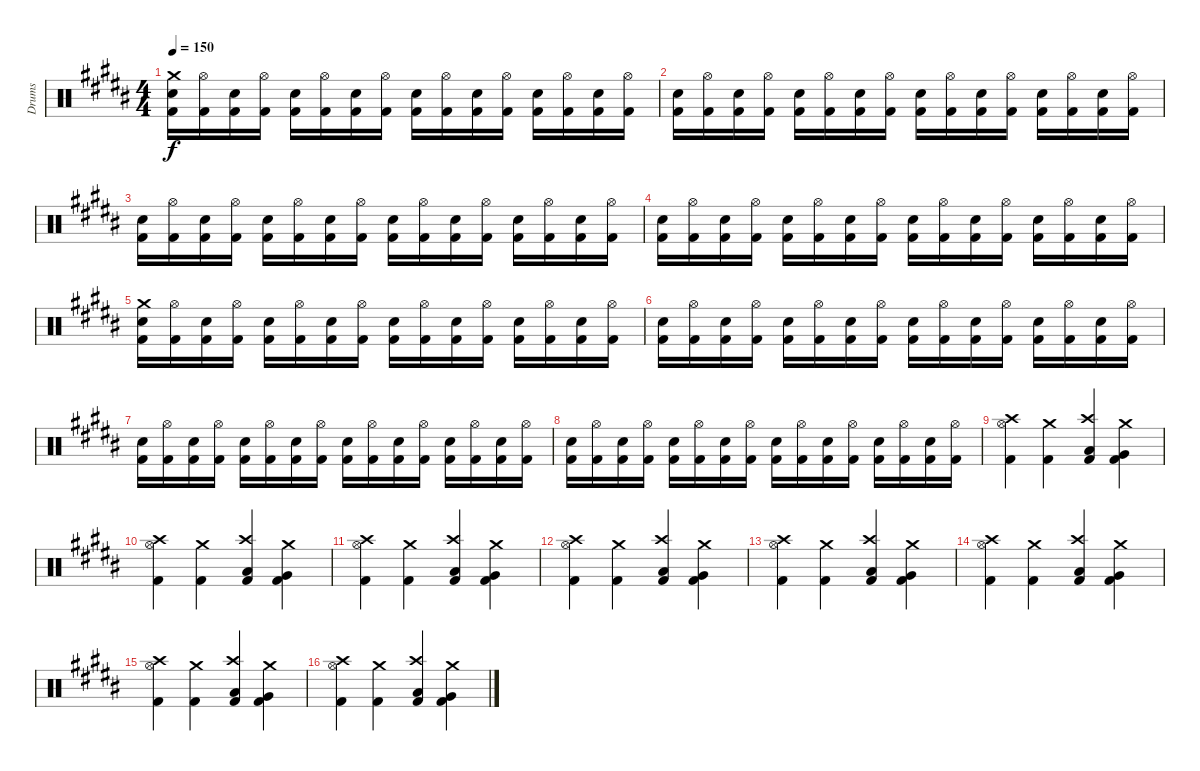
\track ("Drums" "Drums") {instrument percussion}
\staff {score}
\articulation defaults
\ts (4 4)
\tempo 150
\clef neutral
\ks b
("Snare (hit) 2" "Crash medium (hit)" "Kick (hit) 2").16{dy f} ("Hi-Hat (open)" "Kick (hit) 2").16 ("Snare (hit) 2" "Kick (hit) 2").16 ("Hi-Hat (open)" "Kick (hit) 2").16 ("Snare (hit) 2" "Kick (hit) 2").16 ("Hi-Hat (open)" "Kick (hit) 2").16 ("Snare (hit) 2" "Kick (hit) 2").16 ("Hi-Hat (open)" "Kick (hit) 2").16 ("Snare (hit) 2" "Kick (hit) 2").16 ("Hi-Hat (open)" "Kick (hit) 2").16 ("Snare (hit) 2" "Kick (hit) 2").16 ("Hi-Hat (open)" "Kick (hit) 2").16 ("Snare (hit) 2" "Kick (hit) 2").16 ("Hi-Hat (open)" "Kick (hit) 2").16 ("Snare (hit) 2" "Kick (hit) 2").16 ("Hi-Hat (open)" "Kick (hit) 2").16 |
("Snare (hit) 2" "Kick (hit) 2").16 ("Hi-Hat (open)" "Kick (hit) 2").16 ("Snare (hit) 2" "Kick (hit) 2").16 ("Hi-Hat (open)" "Kick (hit) 2").16 ("Snare (hit) 2" "Kick (hit) 2").16 ("Hi-Hat (open)" "Kick (hit) 2").16 ("Snare (hit) 2" "Kick (hit) 2").16 ("Hi-Hat (open)" "Kick (hit) 2").16 ("Snare (hit) 2" "Kick (hit) 2").16 ("Hi-Hat (open)" "Kick (hit) 2").16 ("Snare (hit) 2" "Kick (hit) 2").16 ("Hi-Hat (open)" "Kick (hit) 2").16 ("Snare (hit) 2" "Kick (hit) 2").16 ("Hi-Hat (open)" "Kick (hit) 2").16 ("Snare (hit) 2" "Kick (hit) 2").16 ("Hi-Hat (open)" "Kick (hit) 2").16 |
("Snare (hit) 2" "Kick (hit) 2").16 ("Hi-Hat (open)" "Kick (hit) 2").16 ("Snare (hit) 2" "Kick (hit) 2").16 ("Hi-Hat (open)" "Kick (hit) 2").16 ("Snare (hit) 2" "Kick (hit) 2").16 ("Hi-Hat (open)" "Kick (hit) 2").16 ("Snare (hit) 2" "Kick (hit) 2").16 ("Hi-Hat (open)" "Kick (hit) 2").16 ("Snare (hit) 2" "Kick (hit) 2").16 ("Hi-Hat (open)" "Kick (hit) 2").16 ("Snare (hit) 2" "Kick (hit) 2").16 ("Hi-Hat (open)" "Kick (hit) 2").16 ("Snare (hit) 2" "Kick (hit) 2").16 ("Hi-Hat (open)" "Kick (hit) 2").16 ("Snare (hit) 2" "Kick (hit) 2").16 ("Hi-Hat (open)" "Kick (hit) 2").16 |
("Snare (hit) 2" "Kick (hit) 2").16 ("Hi-Hat (open)" "Kick (hit) 2").16 ("Snare (hit) 2" "Kick (hit) 2").16 ("Hi-Hat (open)" "Kick (hit) 2").16 ("Snare (hit) 2" "Kick (hit) 2").16 ("Hi-Hat (open)" "Kick (hit) 2").16 ("Snare (hit) 2" "Kick (hit) 2").16 ("Hi-Hat (open)" "Kick (hit) 2").16 ("Snare (hit) 2" "Kick (hit) 2").16 ("Hi-Hat (open)" "Kick (hit) 2").16 ("Snare (hit) 2" "Kick (hit) 2").16 ("Hi-Hat (open)" "Kick (hit) 2").16 ("Snare (hit) 2" "Kick (hit) 2").16 ("Hi-Hat (open)" "Kick (hit) 2").16 ("Snare (hit) 2" "Kick (hit) 2").16 ("Hi-Hat (open)" "Kick (hit) 2").16 |
("Snare (hit) 2" "Crash medium (hit)" "Kick (hit) 2").16 ("Hi-Hat (open)" "Kick (hit) 2").16 ("Snare (hit) 2" "Kick (hit) 2").16 ("Hi-Hat (open)" "Kick (hit) 2").16 ("Snare (hit) 2" "Kick (hit) 2").16 ("Hi-Hat (open)" "Kick (hit) 2").16 ("Snare (hit) 2" "Kick (hit) 2").16 ("Hi-Hat (open)" "Kick (hit) 2").16 ("Snare (hit) 2" "Kick (hit) 2").16 ("Hi-Hat (open)" "Kick (hit) 2").16 ("Snare (hit) 2" "Kick (hit) 2").16 ("Hi-Hat (open)" "Kick (hit) 2").16 ("Snare (hit) 2" "Kick (hit) 2").16 ("Hi-Hat (open)" "Kick (hit) 2").16 ("Snare (hit) 2" "Kick (hit) 2").16 ("Hi-Hat (open)" "Kick (hit) 2").16 |
("Snare (hit) 2" "Kick (hit) 2").16 ("Hi-Hat (open)" "Kick (hit) 2").16 ("Snare (hit) 2" "Kick (hit) 2").16 ("Hi-Hat (open)" "Kick (hit) 2").16 ("Snare (hit) 2" "Kick (hit) 2").16 ("Hi-Hat (open)" "Kick (hit) 2").16 ("Snare (hit) 2" "Kick (hit) 2").16 ("Hi-Hat (open)" "Kick (hit) 2").16 ("Snare (hit) 2" "Kick (hit) 2").16 ("Hi-Hat (open)" "Kick (hit) 2").16 ("Snare (hit) 2" "Kick (hit) 2").16 ("Hi-Hat (open)" "Kick (hit) 2").16 ("Snare (hit) 2" "Kick (hit) 2").16 ("Hi-Hat (open)" "Kick (hit) 2").16 ("Snare (hit) 2" "Kick (hit) 2").16 ("Hi-Hat (open)" "Kick (hit) 2").16 |
("Snare (hit) 2" "Kick (hit) 2").16 ("Hi-Hat (open)" "Kick (hit) 2").16 ("Snare (hit) 2" "Kick (hit) 2").16 ("Hi-Hat (open)" "Kick (hit) 2").16 ("Snare (hit) 2" "Kick (hit) 2").16 ("Hi-Hat (open)" "Kick (hit) 2").16 ("Snare (hit) 2" "Kick (hit) 2").16 ("Hi-Hat (open)" "Kick (hit) 2").16 ("Snare (hit) 2" "Kick (hit) 2").16 ("Hi-Hat (open)" "Kick (hit) 2").16 ("Snare (hit) 2" "Kick (hit) 2").16 ("Hi-Hat (open)" "Kick (hit) 2").16 ("Snare (hit) 2" "Kick (hit) 2").16 ("Hi-Hat (open)" "Kick (hit) 2").16 ("Snare (hit) 2" "Kick (hit) 2").16 ("Hi-Hat (open)" "Kick (hit) 2").16 |
("Snare (hit) 2" "Kick (hit) 2").16 ("Hi-Hat (open)" "Kick (hit) 2").16 ("Snare (hit) 2" "Kick (hit) 2").16 ("Hi-Hat (open)" "Kick (hit) 2").16 ("Snare (hit) 2" "Kick (hit) 2").16 ("Hi-Hat (open)" "Kick (hit) 2").16 ("Snare (hit) 2" "Kick (hit) 2").16 ("Hi-Hat (open)" "Kick (hit) 2").16 ("Snare (hit) 2" "Kick (hit) 2").16 ("Hi-Hat (open)" "Kick (hit) 2").16 ("Snare (hit) 2" "Kick (hit) 2").16 ("Hi-Hat (open)" "Kick (hit) 2").16 ("Snare (hit) 2" "Kick (hit) 2").16 ("Hi-Hat (open)" "Kick (hit) 2").16 ("Snare (hit) 2" "Kick (hit) 2").16 ("Hi-Hat (open)" "Kick (hit) 2").16 |
("Crash high (hit)" "Hi-Hat (open)" "Kick (hit) 2").4 ("Crash medium (hit)" "Kick (hit) 2").4 ("Crash high (hit)" "Low Tom (hit)" "Kick (hit) 2").4 ("Crash medium (hit)" "Very Low Tom (hit)" "Kick (hit) 2").4 |
("Crash high (hit)" "Hi-Hat (open)" "Kick (hit) 2").4 ("Crash medium (hit)" "Kick (hit) 2").4 ("Crash high (hit)" "Low Tom (hit)" "Kick (hit) 2").4 ("Crash medium (hit)" "Very Low Tom (hit)" "Kick (hit) 2").4 |
("Crash high (hit)" "Hi-Hat (open)" "Kick (hit) 2").4 ("Crash medium (hit)" "Kick (hit) 2").4 ("Crash high (hit)" "Low Tom (hit)" "Kick (hit) 2").4 ("Crash medium (hit)" "Very Low Tom (hit)" "Kick (hit) 2").4 |
("Crash high (hit)" "Hi-Hat (open)" "Kick (hit) 2").4 ("Crash medium (hit)" "Kick (hit) 2").4 ("Crash high (hit)" "Low Tom (hit)" "Kick (hit) 2").4 ("Crash medium (hit)" "Very Low Tom (hit)" "Kick (hit) 2").4 |
("Crash high (hit)" "Hi-Hat (open)" "Kick (hit) 2").4 ("Crash medium (hit)" "Kick (hit) 2").4 ("Crash high (hit)" "Low Tom (hit)" "Kick (hit) 2").4 ("Crash medium (hit)" "Very Low Tom (hit)" "Kick (hit) 2").4 |
("Crash high (hit)" "Hi-Hat (open)" "Kick (hit) 2").4 ("Crash medium (hit)" "Kick (hit) 2").4 ("Crash high (hit)" "Low Tom (hit)" "Kick (hit) 2").4 ("Crash medium (hit)" "Very Low Tom (hit)" "Kick (hit) 2").4 |
("Crash high (hit)" "Hi-Hat (open)" "Kick (hit) 2").4 ("Crash medium (hit)" "Kick (hit) 2").4 ("Crash high (hit)" "Low Tom (hit)" "Kick (hit) 2").4 ("Crash medium (hit)" "Very Low Tom (hit)" "Kick (hit) 2").4 |
("Crash high (hit)" "Hi-Hat (open)" "Kick (hit) 2").4 ("Crash medium (hit)" "Kick (hit) 2").4 ("Crash high (hit)" "Low Tom (hit)" "Kick (hit) 2").4 ("Crash medium (hit)" "Very Low Tom (hit)" "Kick (hit) 2").4
